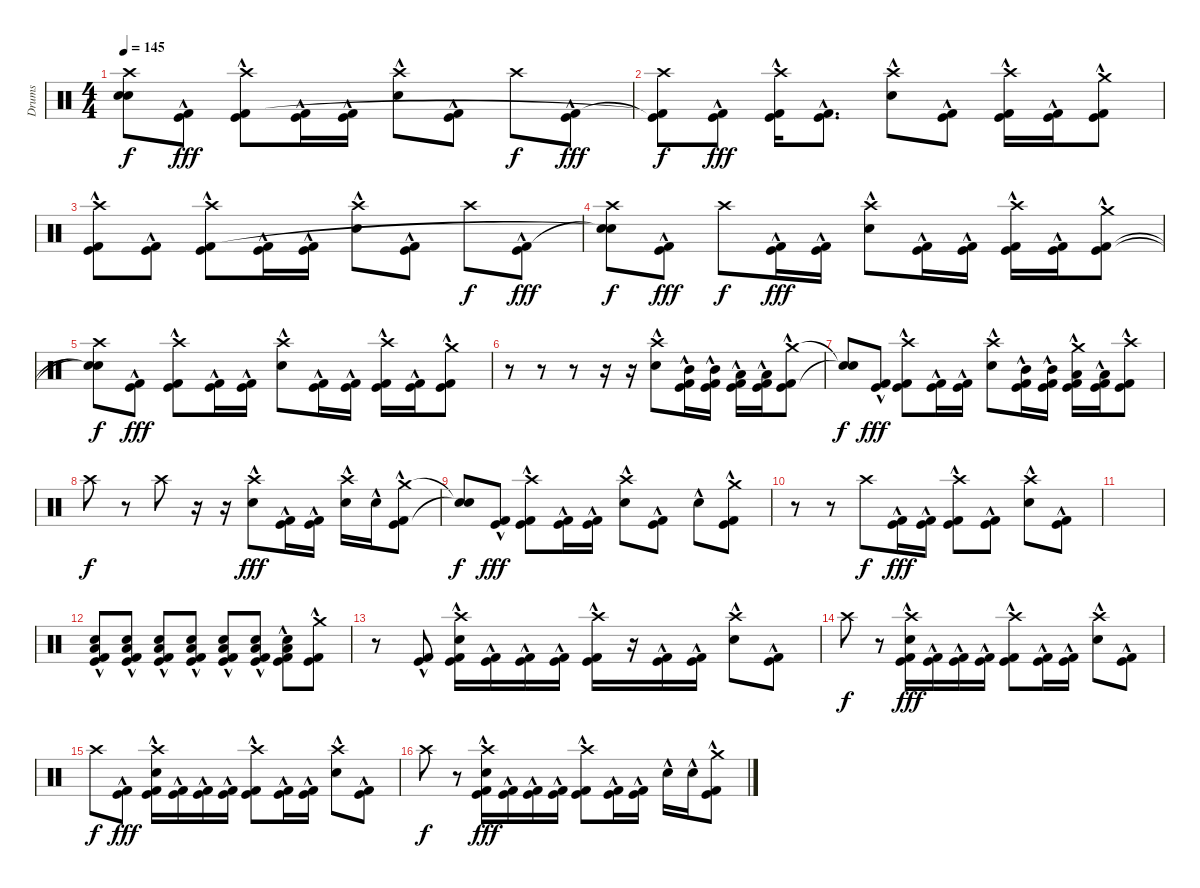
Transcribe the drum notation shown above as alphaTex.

\track ("Drums" "Drums") {instrument percussion}
\staff {score}
\articulation defaults
\ts (4 4)
\tempo 145
\clef neutral
\ks c
("Crash high (hit)" "Snare (hit)"{t} "Snare (hit)"{t}).8{dy f} ("Kick (hit)"{hac} "Kick (hit) 2"{hac}).8{dy fff} ("Crash high (hit)" "Kick (hit)"{hac} "Kick (hit) 2"{hac}).8 ("Kick (hit)"{hac} "Kick (hit) 2"{hac}).16 ("Kick (hit)"{hac} "Kick (hit) 2"{hac}).16 ("Crash high (hit)" "Electric Snare (hit)"{hac}).8 ("Kick (hit)"{hac} "Kick (hit) 2"{hac}).8 "Crash high (hit)".8{dy f} ("Kick (hit)"{hac} "Kick (hit) 2"{hac}).8{dy fff} |
("Crash high (hit)" "Kick (hit)"{t} "Kick (hit) 2"{t}).8{dy f} ("Kick (hit)"{hac} "Kick (hit) 2"{hac}).8{dy fff} ("Crash high (hit)" "Kick (hit)"{hac} "Kick (hit) 2"{hac}).16 ("Kick (hit)"{hac} "Kick (hit) 2"{hac}).8{d} ("Crash high (hit)" "Electric Snare (hit)"{hac}).8 ("Kick (hit)"{hac} "Kick (hit) 2"{hac}).8 ("Crash high (hit)" "Kick (hit)"{hac} "Kick (hit) 2"{hac}).16 ("Kick (hit)"{hac} "Kick (hit) 2"{hac}).16 ("Crash medium (hit)" "Kick (hit)"{hac} "Kick (hit) 2"{hac}).8 |
("Crash high (hit)" "Kick (hit)"{hac} "Kick (hit) 2"{hac}).8 ("Kick (hit)"{hac} "Kick (hit) 2"{hac}).8 ("Crash high (hit)" "Kick (hit)"{hac} "Kick (hit) 2"{hac}).8 ("Kick (hit)"{hac} "Kick (hit) 2"{hac}).16 ("Kick (hit)"{hac} "Kick (hit) 2"{hac}).16 ("Crash high (hit)" "Electric Snare (hit)"{hac}).8 ("Kick (hit)"{hac} "Kick (hit) 2"{hac}).8 "Crash high (hit)".8{dy f} ("Kick (hit)"{hac} "Kick (hit) 2"{hac}).8{dy fff} |
("Crash high (hit)" "Snare (hit)"{t} "Snare (hit)"{t}).8{dy f} ("Kick (hit)"{hac} "Kick (hit) 2"{hac}).8{dy fff} "Crash high (hit)".8{dy f} ("Kick (hit)"{hac} "Kick (hit) 2"{hac}).16{dy fff} ("Kick (hit)"{hac} "Kick (hit) 2"{hac}).16 ("Crash high (hit)" "Electric Snare (hit)"{hac}).8 ("Kick (hit)"{hac} "Kick (hit) 2"{hac}).16 ("Kick (hit)"{hac} "Kick (hit) 2"{hac}).16 ("Crash high (hit)" "Kick (hit)"{hac} "Kick (hit) 2"{hac}).16 ("Kick (hit)"{hac} "Kick (hit) 2"{hac}).16 ("Crash medium (hit)" "Kick (hit)"{hac} "Kick (hit) 2"{hac}).8 |
("Crash high (hit)" "Snare (hit)"{t} "Snare (hit)"{t}).8{dy f} ("Kick (hit)"{hac} "Kick (hit) 2"{hac}).8{dy fff} ("Crash high (hit)" "Kick (hit)"{hac} "Kick (hit) 2"{hac}).8 ("Kick (hit)"{hac} "Kick (hit) 2"{hac}).16 ("Kick (hit)"{hac} "Kick (hit) 2"{hac}).16 ("Crash high (hit)" "Electric Snare (hit)"{hac}).8 ("Kick (hit)"{hac} "Kick (hit) 2"{hac}).16 ("Kick (hit)"{hac} "Kick (hit) 2"{hac}).16 ("Crash high (hit)" "Kick (hit)"{hac} "Kick (hit) 2"{hac}).16 ("Kick (hit)"{hac} "Kick (hit) 2"{hac}).16 ("Crash medium (hit)" "Kick (hit)"{hac} "Kick (hit) 2"{hac}).8 |
r.8 r.8 r.8 r.16 r.16 ("Crash high (hit)" "Electric Snare (hit)"{hac}).8 ("Mid Tom (hit)" "Kick (hit)"{hac} "Kick (hit) 2"{hac}).16 ("Mid Tom (hit)" "Kick (hit)"{hac} "Kick (hit) 2"{hac}).16 ("Low Tom (hit)" "Kick (hit)"{hac} "Kick (hit) 2").16 ("Low Tom (hit)" "Kick (hit)"{hac} "Kick (hit) 2").16 ("Crash medium (hit)" "Kick (hit)"{hac} "Kick (hit) 2"{hac}).8 |
("Snare (hit)"{t} "Snare (hit)"{t}).8{dy f} ("Kick (hit)"{hac} "Kick (hit) 2"{hac}).8{dy fff} ("Crash high (hit)" "Kick (hit)"{hac} "Kick (hit) 2"{hac}).8 ("Kick (hit)"{hac} "Kick (hit) 2"{hac}).16 ("Kick (hit)"{hac} "Kick (hit) 2"{hac}).16 ("Crash high (hit)" "Electric Snare (hit)"{hac}).8 ("Mid Tom (hit)" "Kick (hit)"{hac} "Kick (hit) 2"{hac}).16 ("Mid Tom (hit)" "Kick (hit)"{hac} "Kick (hit) 2"{hac}).16 ("Crash medium (hit)" "Low Tom (hit)" "Kick (hit)"{hac} "Kick (hit) 2").16 ("Low Tom (hit)" "Kick (hit)"{hac} "Kick (hit) 2").16 ("Crash high (hit)" "Kick (hit)"{hac} "Kick (hit) 2"{hac}).8 |
"Crash high (hit)".8{dy f} r.8 "Crash high (hit)".8 r.16 r.16 ("Crash high (hit)" "Electric Snare (hit)"{hac}).8{dy fff} ("Kick (hit)"{hac} "Kick (hit) 2"{hac}).16 ("Kick (hit)"{hac} "Kick (hit) 2"{hac}).16 ("Crash high (hit)" "Electric Snare (hit)"{hac}).16 "Electric Snare (hit)"{hac}.16 ("Crash medium (hit)" "Kick (hit)"{hac} "Kick (hit) 2"{hac}).8 |
("Snare (hit)"{t} "Snare (hit)"{t}).8{dy f} ("Kick (hit)"{hac} "Kick (hit) 2"{hac}).8{dy fff} ("Crash high (hit)" "Kick (hit)"{hac} "Kick (hit) 2"{hac}).8 ("Kick (hit)"{hac} "Kick (hit) 2"{hac}).16 ("Kick (hit)"{hac} "Kick (hit) 2"{hac}).16 ("Crash high (hit)" "Electric Snare (hit)"{hac}).8 ("Kick (hit)"{hac} "Kick (hit) 2"{hac}).8 "Electric Snare (hit)"{hac}.8 ("Crash medium (hit)" "Kick (hit)"{hac} "Kick (hit) 2").8 |
r.8 r.8 "Crash high (hit)".8{dy f} ("Kick (hit)"{hac} "Kick (hit) 2"{hac}).16{dy fff} ("Kick (hit)"{hac} "Kick (hit) 2"{hac}).16 ("Crash high (hit)" "Kick (hit)"{hac} "Kick (hit) 2"{hac}).8 ("Kick (hit)"{hac} "Kick (hit) 2"{hac}).8 ("Crash high (hit)" "Electric Snare (hit)"{hac}).8 ("Kick (hit)"{hac} "Kick (hit) 2"{hac}).8 |
|
("Kick (hit)"{hac} "Low Floor Tom (hit)"{hac} "Electric Snare (hit)" "Kick (hit) 2"{hac}).8 ("Kick (hit)"{hac} "Low Floor Tom (hit)"{hac} "Electric Snare (hit)" "Kick (hit) 2"{hac}).8 ("Kick (hit)"{hac} "Low Floor Tom (hit)"{hac} "Electric Snare (hit)" "Kick (hit) 2"{hac}).8 ("Kick (hit)"{hac} "Low Floor Tom (hit)"{hac} "Electric Snare (hit)" "Kick (hit) 2"{hac}).8 ("Kick (hit)"{hac} "Low Floor Tom (hit)"{hac} "Electric Snare (hit)" "Kick (hit) 2"{hac}).8 ("Kick (hit)"{hac} "Low Floor Tom (hit)"{hac} "Electric Snare (hit)" "Kick (hit) 2"{hac}).8 ("Kick (hit)"{hac} "Low Floor Tom (hit)"{hac} "Electric Snare (hit)" "Kick (hit) 2"{hac}).8 ("Crash medium (hit)" "Kick (hit)"{hac} "Kick (hit) 2"{hac}).8 |
r.8 ("Kick (hit)"{hac} "Kick (hit) 2"{hac}).8 ("Crash high (hit)" "Electric Snare (hit)"{hac} "Kick (hit)"{hac} "Kick (hit) 2"{hac}).16 ("Kick (hit)"{hac} "Kick (hit) 2"{hac}).16 ("Kick (hit)"{hac} "Kick (hit) 2"{hac}).16 ("Kick (hit)"{hac} "Kick (hit) 2"{hac}).16 ("Crash high (hit)" "Kick (hit)"{hac} "Kick (hit) 2"{hac}).16 r.16 ("Kick (hit)"{hac} "Kick (hit) 2"{hac}).16 ("Kick (hit)"{hac} "Kick (hit) 2"{hac}).16 ("Crash high (hit)" "Electric Snare (hit)"{hac}).8 ("Kick (hit)"{hac} "Kick (hit) 2"{hac}).8 |
"Crash high (hit)".8{dy f} r.8 ("Crash high (hit)" "Electric Snare (hit)"{hac} "Kick (hit)"{hac} "Kick (hit) 2"{hac}).16{dy fff} ("Kick (hit)"{hac} "Kick (hit) 2"{hac}).16 ("Kick (hit)"{hac} "Kick (hit) 2"{hac}).16 ("Kick (hit)"{hac} "Kick (hit) 2"{hac}).16 ("Crash high (hit)" "Kick (hit)" "Kick (hit) 2"{hac}).8 ("Kick (hit)"{hac} "Kick (hit) 2"{hac}).16 ("Kick (hit)"{hac} "Kick (hit) 2"{hac}).16 ("Crash high (hit)" "Electric Snare (hit)"{hac}).8 ("Kick (hit)"{hac} "Kick (hit) 2"{hac}).8 |
"Crash high (hit)".8{dy f} ("Kick (hit)"{hac} "Kick (hit) 2"{hac}).8{dy fff} ("Crash high (hit)" "Electric Snare (hit)"{hac} "Kick (hit)"{hac} "Kick (hit) 2"{hac}).16 ("Kick (hit)"{hac} "Kick (hit) 2"{hac}).16 ("Kick (hit)"{hac} "Kick (hit) 2"{hac}).16 ("Kick (hit)"{hac} "Kick (hit) 2"{hac}).16 ("Crash high (hit)" "Kick (hit)" "Kick (hit) 2"{hac}).8 ("Kick (hit)"{hac} "Kick (hit) 2"{hac}).16 ("Kick (hit)"{hac} "Kick (hit) 2"{hac}).16 ("Crash high (hit)" "Electric Snare (hit)"{hac}).8 ("Kick (hit)"{hac} "Kick (hit) 2"{hac}).8 |
"Crash high (hit)".8{dy f} r.8 ("Crash high (hit)" "Electric Snare (hit)"{hac} "Kick (hit)"{hac} "Kick (hit) 2"{hac}).16{dy fff} ("Kick (hit)"{hac} "Kick (hit) 2"{hac}).16 ("Kick (hit)"{hac} "Kick (hit) 2"{hac}).16 ("Kick (hit)"{hac} "Kick (hit) 2"{hac}).16 ("Crash high (hit)" "Kick (hit)" "Kick (hit) 2"{hac}).8 ("Kick (hit)"{hac} "Kick (hit) 2"{hac}).16 ("Kick (hit)"{hac} "Kick (hit) 2"{hac}).16 "Electric Snare (hit)"{hac}.16 "Electric Snare (hit)"{hac}.16 ("Crash medium (hit)" "Kick (hit)"{hac} "Kick (hit) 2"{hac}).8
